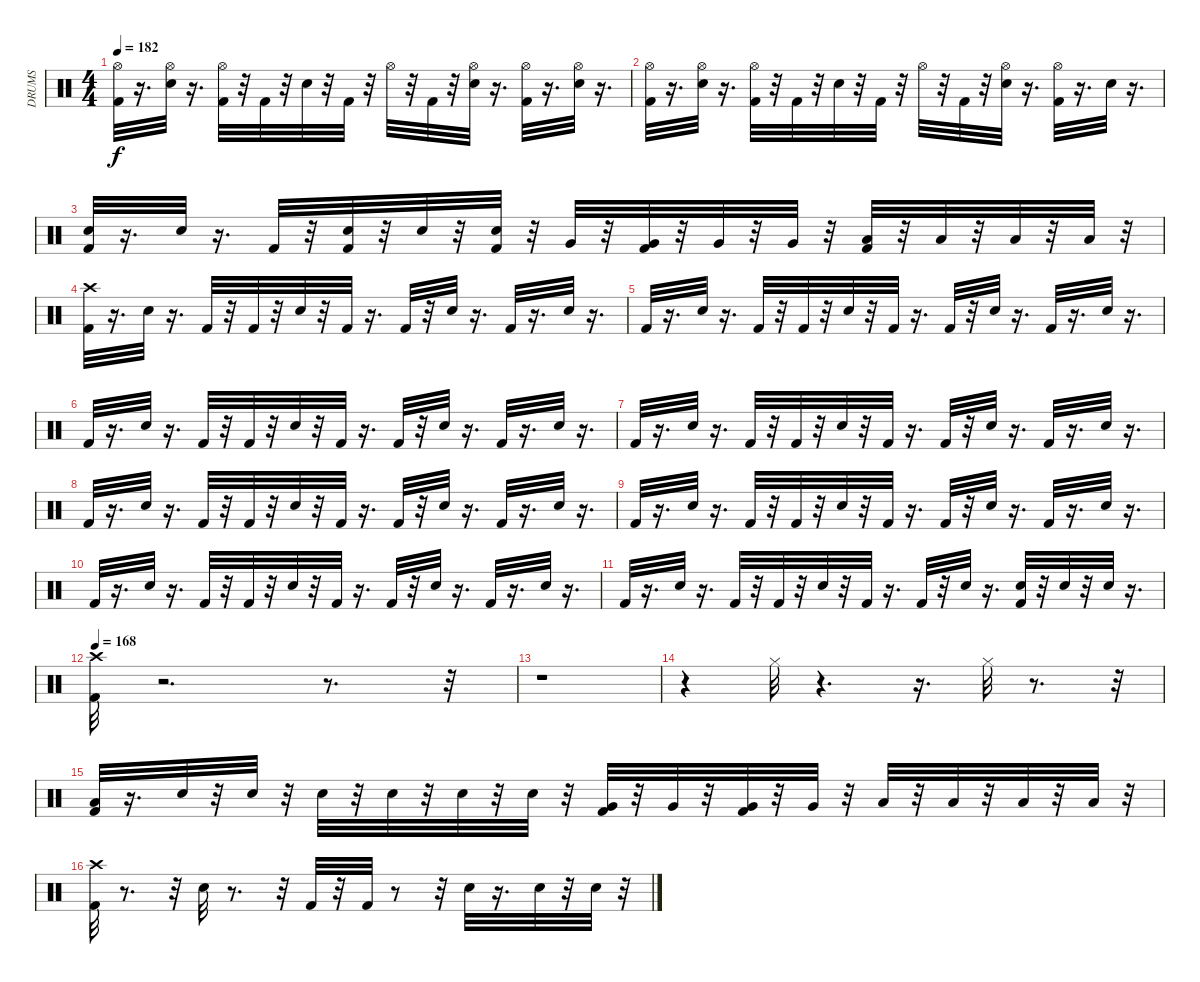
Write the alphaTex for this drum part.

\track ("DRUMS" "DRUMS") {instrument percussion}
\staff {score}
\articulation defaults
\ts (4 4)
\tempo 182
\clef neutral
\ks c
("Kick (hit) 2" "Hi-Hat (open)").32{dy f} r.16{d} ("Electric Snare (hit)" "Hi-Hat (open)").32 r.16{d} ("Kick (hit) 2" "Hi-Hat (open)").32 r.32 "Kick (hit) 2".32 r.32 "Electric Snare (hit)".32 r.32 "Kick (hit) 2".32 r.32 "Hi-Hat (open)".32 r.32 "Kick (hit) 2".32 r.32 ("Electric Snare (hit)" "Hi-Hat (open)").32 r.16{d} ("Kick (hit) 2" "Hi-Hat (open)").32 r.16{d} ("Electric Snare (hit)" "Hi-Hat (open)").32 r.16{d} |
("Kick (hit) 2" "Hi-Hat (open)").32 r.16{d} ("Electric Snare (hit)" "Hi-Hat (open)").32 r.16{d} ("Kick (hit) 2" "Hi-Hat (open)").32 r.32 "Kick (hit) 2".32 r.32 "Electric Snare (hit)".32 r.32 "Kick (hit) 2".32 r.32 "Hi-Hat (open)".32 r.32 "Kick (hit) 2".32 r.32 ("Electric Snare (hit)" "Hi-Hat (open)").32 r.16{d} ("Kick (hit) 2" "Hi-Hat (open)").32 r.16{d} "Electric Snare (hit)".32 r.16{d} |
("Kick (hit) 2" "Electric Snare (hit)").32 r.16{d} "Electric Snare (hit)".32 r.16{d} "Kick (hit) 2".32 r.32 ("Kick (hit) 2" "Electric Snare (hit)").32 r.32 "Electric Snare (hit)".32 r.32 ("Kick (hit) 2" "Electric Snare (hit)").32 r.32 "Very Low Tom (hit)".32 r.32 ("Kick (hit) 2" "Very Low Tom (hit)").32 r.32 "Very Low Tom (hit)".32 r.32 "Very Low Tom (hit)".32 r.32 ("Kick (hit) 2" "Low Floor Tom (hit)").32 r.32 "Low Floor Tom (hit)".32 r.32 "Low Floor Tom (hit)".32 r.32 "Low Floor Tom (hit)".32 r.32 |
("Kick (hit) 2" "Crash high (hit)").32 r.16{d} "Electric Snare (hit)".32 r.16{d} "Kick (hit) 2".32 r.32 "Kick (hit) 2".32 r.32 "Electric Snare (hit)".32 r.32 "Kick (hit) 2".32 r.16{d} "Kick (hit) 2".32 r.32 "Electric Snare (hit)".32 r.16{d} "Kick (hit) 2".32 r.16{d} "Electric Snare (hit)".32 r.16{d} |
"Kick (hit) 2".32 r.16{d} "Electric Snare (hit)".32 r.16{d} "Kick (hit) 2".32 r.32 "Kick (hit) 2".32 r.32 "Electric Snare (hit)".32 r.32 "Kick (hit) 2".32 r.16{d} "Kick (hit) 2".32 r.32 "Electric Snare (hit)".32 r.16{d} "Kick (hit) 2".32 r.16{d} "Electric Snare (hit)".32 r.16{d} |
"Kick (hit) 2".32 r.16{d} "Electric Snare (hit)".32 r.16{d} "Kick (hit) 2".32 r.32 "Kick (hit) 2".32 r.32 "Electric Snare (hit)".32 r.32 "Kick (hit) 2".32 r.16{d} "Kick (hit) 2".32 r.32 "Electric Snare (hit)".32 r.16{d} "Kick (hit) 2".32 r.16{d} "Electric Snare (hit)".32 r.16{d} |
"Kick (hit) 2".32 r.16{d} "Electric Snare (hit)".32 r.16{d} "Kick (hit) 2".32 r.32 "Kick (hit) 2".32 r.32 "Electric Snare (hit)".32 r.32 "Kick (hit) 2".32 r.16{d} "Kick (hit) 2".32 r.32 "Electric Snare (hit)".32 r.16{d} "Kick (hit) 2".32 r.16{d} "Electric Snare (hit)".32 r.16{d} |
"Kick (hit) 2".32 r.16{d} "Electric Snare (hit)".32 r.16{d} "Kick (hit) 2".32 r.32 "Kick (hit) 2".32 r.32 "Electric Snare (hit)".32 r.32 "Kick (hit) 2".32 r.16{d} "Kick (hit) 2".32 r.32 "Electric Snare (hit)".32 r.16{d} "Kick (hit) 2".32 r.16{d} "Electric Snare (hit)".32 r.16{d} |
"Kick (hit) 2".32 r.16{d} "Electric Snare (hit)".32 r.16{d} "Kick (hit) 2".32 r.32 "Kick (hit) 2".32 r.32 "Electric Snare (hit)".32 r.32 "Kick (hit) 2".32 r.16{d} "Kick (hit) 2".32 r.32 "Electric Snare (hit)".32 r.16{d} "Kick (hit) 2".32 r.16{d} "Electric Snare (hit)".32 r.16{d} |
"Kick (hit) 2".32 r.16{d} "Electric Snare (hit)".32 r.16{d} "Kick (hit) 2".32 r.32 "Kick (hit) 2".32 r.32 "Electric Snare (hit)".32 r.32 "Kick (hit) 2".32 r.16{d} "Kick (hit) 2".32 r.32 "Electric Snare (hit)".32 r.16{d} "Kick (hit) 2".32 r.16{d} "Electric Snare (hit)".32 r.16{d} |
"Kick (hit) 2".32 r.16{d} "Electric Snare (hit)".32 r.16{d} "Kick (hit) 2".32 r.32 "Kick (hit) 2".32 r.32 "Electric Snare (hit)".32 r.32 "Kick (hit) 2".32 r.16{d} "Kick (hit) 2".32 r.32 "Electric Snare (hit)".32 r.16{d} ("Kick (hit) 2" "Electric Snare (hit)").32 r.32 "Electric Snare (hit)".32 r.32 "Electric Snare (hit)".32 r.16{d} |
\tempo 168
("Crash high (hit)" "Kick (hit) 2").32 r.2{d} r.8{d} r.32 |
r.1 |
r.4 "Hi-Hat (closed)".32 r.4{d} r.16{d} "Hi-Hat (closed)".32 r.8{d} r.32 |
("Kick (hit) 2" "Low Floor Tom (hit)").32 r.16{d} "Electric Snare (hit)".32 r.32 "Electric Snare (hit)".32 r.32 "Electric Snare (hit)".32 r.32 "Electric Snare (hit)".32 r.32 "Electric Snare (hit)".32 r.32 "Electric Snare (hit)".32 r.32 ("Kick (hit) 2" "Very Low Tom (hit)").32 r.32 "Very Low Tom (hit)".32 r.32 ("Very Low Tom (hit)" "Kick (hit) 2").32 r.32 "Very Low Tom (hit)".32 r.32 "Low Floor Tom (hit)".32 r.32 "Low Floor Tom (hit)".32 r.32 "Low Floor Tom (hit)".32 r.32 "Low Floor Tom (hit)".32 r.32 |
("Crash high (hit)" "Kick (hit) 2").32 r.8{d} r.32 "Electric Snare (hit)".32 r.8{d} r.32 "Kick (hit) 2".32 r.32 "Kick (hit) 2".32 r.8 r.32 "Electric Snare (hit)".32 r.16{d} "Electric Snare (hit)".32 r.32 "Electric Snare (hit)".32 r.32
